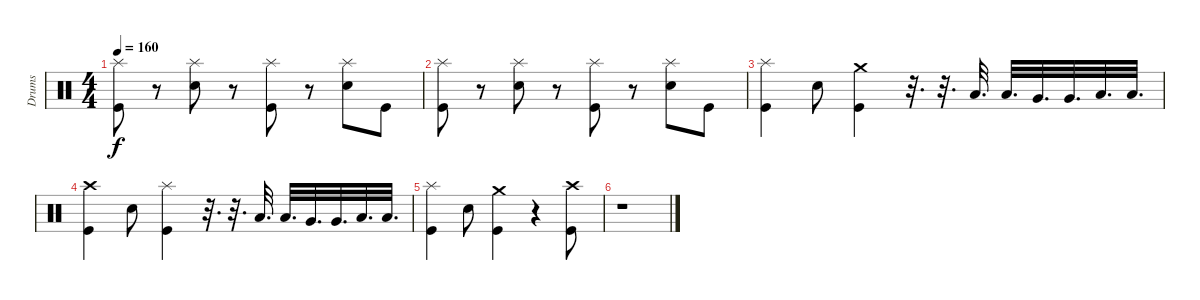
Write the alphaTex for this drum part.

\track ("Drums" "Drums") {instrument percussion}
\staff {score}
\articulation defaults
\ts (4 4)
\tempo 160
\clef neutral
\ks c
("Kick (hit)" "Splash (hit)").8{dy f} r.8 ("Electric Snare (hit)" "Splash (hit)").8 r.8 ("Kick (hit)" "Splash (hit)").8 r.8 ("Electric Snare (hit)" "Splash (hit)").8 "Kick (hit)".8 |
("Kick (hit)" "Splash (hit)").8 r.8 ("Electric Snare (hit)" "Splash (hit)").8 r.8 ("Kick (hit)" "Splash (hit)").8 r.8 ("Electric Snare (hit)" "Splash (hit)").8 "Kick (hit)".8 |
("Kick (hit)" "Splash (hit)").4 "Electric Snare (hit)".8 ("Kick (hit)" "Crash medium (hit)").4 r.32{d} r.32{d} "Low Tom (hit)".32{d} "Low Tom (hit)".32{d} "Very Low Tom (hit)".32{d} "Very Low Tom (hit)".32{d} "Low Floor Tom (hit)".32{d} "Low Floor Tom (hit)".32{d} |
("Kick (hit)" "Crash high (hit)").4 "Electric Snare (hit)".8 ("Kick (hit)" "Splash (hit)").4 r.32{d} r.32{d} "Low Tom (hit)".32{d} "Low Tom (hit)".32{d} "Very Low Tom (hit)".32{d} "Very Low Tom (hit)".32{d} "Low Floor Tom (hit)".32{d} "Low Floor Tom (hit)".32{d} |
("Kick (hit)" "Splash (hit)").4 "Electric Snare (hit)".8 ("Kick (hit)" "Crash medium (hit)").4 r.4 ("Kick (hit)" "Crash high (hit)").8 |
r.1
